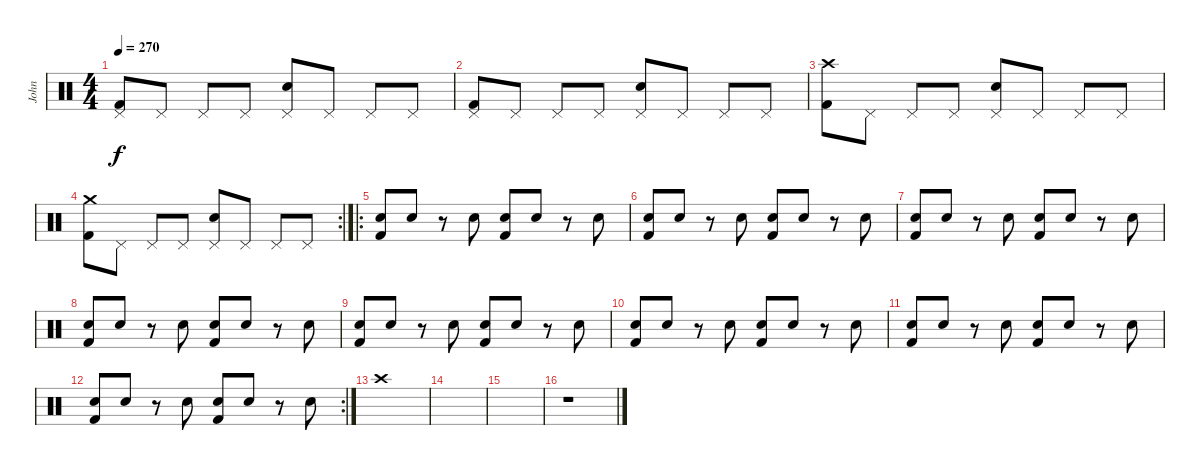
\track ("John" "John") {instrument percussion}
\staff {score}
\articulation defaults
\ts (4 4)
\tempo 270
\clef neutral
\ks c
("Pedal Hi-Hat (hit)" "Kick (hit) 2").8{dy f} "Pedal Hi-Hat (hit)".8 "Pedal Hi-Hat (hit)".8 "Pedal Hi-Hat (hit)".8 ("Pedal Hi-Hat (hit)" "Electric Snare (hit)").8 "Pedal Hi-Hat (hit)".8 "Pedal Hi-Hat (hit)".8 "Pedal Hi-Hat (hit)".8 |
("Pedal Hi-Hat (hit)" "Kick (hit) 2").8 "Pedal Hi-Hat (hit)".8 "Pedal Hi-Hat (hit)".8 "Pedal Hi-Hat (hit)".8 ("Pedal Hi-Hat (hit)" "Electric Snare (hit)").8 "Pedal Hi-Hat (hit)".8 "Pedal Hi-Hat (hit)".8 "Pedal Hi-Hat (hit)".8 |
("Crash high (hit)" "Kick (hit) 2").8 "Pedal Hi-Hat (hit)".8 "Pedal Hi-Hat (hit)".8 "Pedal Hi-Hat (hit)".8 ("Pedal Hi-Hat (hit)" "Electric Snare (hit)").8 "Pedal Hi-Hat (hit)".8 "Pedal Hi-Hat (hit)".8 "Pedal Hi-Hat (hit)".8 |
\rc 2
("Crash medium (hit)" "Kick (hit) 2").8 "Pedal Hi-Hat (hit)".8 "Pedal Hi-Hat (hit)".8 "Pedal Hi-Hat (hit)".8 ("Pedal Hi-Hat (hit)" "Electric Snare (hit)").8 "Pedal Hi-Hat (hit)".8 "Pedal Hi-Hat (hit)".8 "Pedal Hi-Hat (hit)".8 |
\ro
("Electric Snare (hit)" "Kick (hit) 2").8 "Electric Snare (hit)".8 r.8 "Electric Snare (hit)".8 ("Electric Snare (hit)" "Kick (hit) 2").8 "Electric Snare (hit)".8 r.8 "Electric Snare (hit)".8 |
("Electric Snare (hit)" "Kick (hit) 2").8 "Electric Snare (hit)".8 r.8 "Electric Snare (hit)".8 ("Electric Snare (hit)" "Kick (hit) 2").8 "Electric Snare (hit)".8 r.8 "Electric Snare (hit)".8 |
("Electric Snare (hit)" "Kick (hit) 2").8 "Electric Snare (hit)".8 r.8 "Electric Snare (hit)".8 ("Electric Snare (hit)" "Kick (hit) 2").8 "Electric Snare (hit)".8 r.8 "Electric Snare (hit)".8 |
("Electric Snare (hit)" "Kick (hit) 2").8 "Electric Snare (hit)".8 r.8 "Electric Snare (hit)".8 ("Electric Snare (hit)" "Kick (hit) 2").8 "Electric Snare (hit)".8 r.8 "Electric Snare (hit)".8 |
("Electric Snare (hit)" "Kick (hit) 2").8 "Electric Snare (hit)".8 r.8 "Electric Snare (hit)".8 ("Electric Snare (hit)" "Kick (hit) 2").8 "Electric Snare (hit)".8 r.8 "Electric Snare (hit)".8 |
("Electric Snare (hit)" "Kick (hit) 2").8 "Electric Snare (hit)".8 r.8 "Electric Snare (hit)".8 ("Electric Snare (hit)" "Kick (hit) 2").8 "Electric Snare (hit)".8 r.8 "Electric Snare (hit)".8 |
("Electric Snare (hit)" "Kick (hit) 2").8 "Electric Snare (hit)".8 r.8 "Electric Snare (hit)".8 ("Electric Snare (hit)" "Kick (hit) 2").8 "Electric Snare (hit)".8 r.8 "Electric Snare (hit)".8 |
\rc 2
("Electric Snare (hit)" "Kick (hit) 2").8 "Electric Snare (hit)".8 r.8 "Electric Snare (hit)".8 ("Electric Snare (hit)" "Kick (hit) 2").8 "Electric Snare (hit)".8 r.8 "Electric Snare (hit)".8 |
"Crash high (hit)".1 |
|
|
r.1
